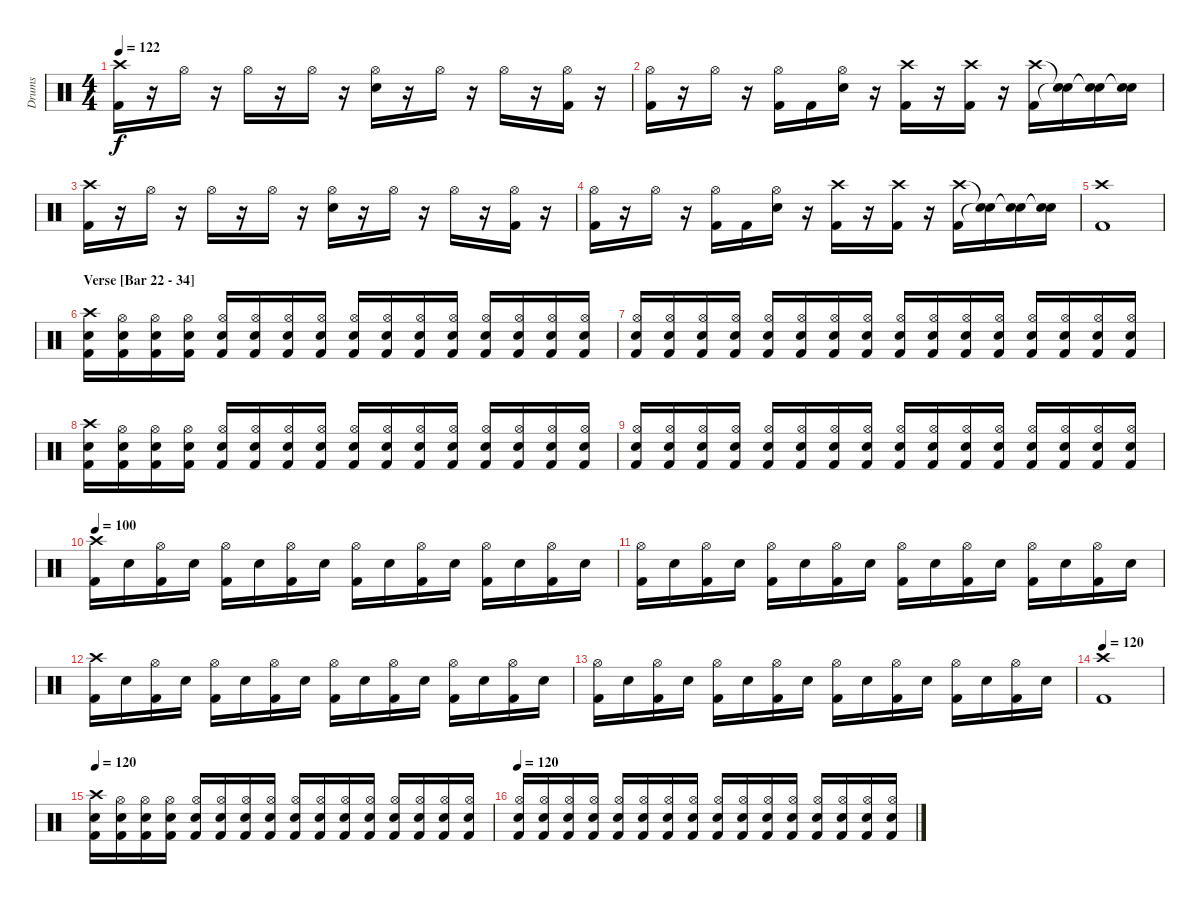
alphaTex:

\track ("Drums" "Drums") {instrument percussion}
\staff {score}
\articulation defaults
\ts (4 4)
\tempo 122
\clef neutral
\ks c
("Crash high (hit)" "Kick (hit) 2").16{dy f} r.16 "Hi-Hat (open)".16 r.16 "Hi-Hat (open)".16 r.16 "Hi-Hat (open)".16 r.16 ("Hi-Hat (open)" "Electric Snare (hit)").16 r.16 "Hi-Hat (open)".16 r.16 "Hi-Hat (open)".16 r.16 ("Hi-Hat (open)" "Kick (hit) 2").16 r.16 |
("Hi-Hat (open)" "Kick (hit) 2").16 r.16 "Hi-Hat (open)".16 r.16 ("Hi-Hat (open)" "Kick (hit) 2").16 "Kick (hit) 2".16 ("Hi-Hat (open)" "Electric Snare (hit)").16 r.16 ("Crash high (hit)" "Kick (hit) 2").16 r.16 ("Crash high (hit)" "Kick (hit) 2").16 r.16 ("Crash high (hit)" "Kick (hit) 2").16 ("Snare (hit)"{t} "Snare (hit)"{t}).16 ("Snare (hit)"{t} "Snare (hit)"{t}).16 ("Snare (hit)"{t} "Snare (hit)"{t}).16 |
("Crash high (hit)" "Kick (hit) 2").16 r.16 "Hi-Hat (open)".16 r.16 "Hi-Hat (open)".16 r.16 "Hi-Hat (open)".16 r.16 ("Hi-Hat (open)" "Electric Snare (hit)").16 r.16 "Hi-Hat (open)".16 r.16 "Hi-Hat (open)".16 r.16 ("Hi-Hat (open)" "Kick (hit) 2").16 r.16 |
("Hi-Hat (open)" "Kick (hit) 2").16 r.16 "Hi-Hat (open)".16 r.16 ("Hi-Hat (open)" "Kick (hit) 2").16 "Kick (hit) 2".16 ("Hi-Hat (open)" "Electric Snare (hit)").16 r.16 ("Crash high (hit)" "Kick (hit) 2").16 r.16 ("Crash high (hit)" "Kick (hit) 2").16 r.16 ("Crash high (hit)" "Kick (hit) 2").16 ("Snare (hit)"{t} "Snare (hit)"{t}).16 ("Snare (hit)"{t} "Snare (hit)"{t}).16 ("Snare (hit)"{t} "Snare (hit)"{t}).16 |
("Crash high (hit)" "Kick (hit) 2").1 |
\section ("" "Verse [Bar 22 - 34]")
("Crash high (hit)" "Electric Snare (hit)" "Kick (hit) 2").16 ("Hi-Hat (open)" "Electric Snare (hit)" "Kick (hit) 2").16 ("Hi-Hat (open)" "Electric Snare (hit)" "Kick (hit) 2").16 ("Hi-Hat (open)" "Electric Snare (hit)" "Kick (hit) 2").16 ("Hi-Hat (open)" "Electric Snare (hit)" "Kick (hit) 2").16 ("Hi-Hat (open)" "Electric Snare (hit)" "Kick (hit) 2").16 ("Hi-Hat (open)" "Electric Snare (hit)" "Kick (hit) 2").16 ("Hi-Hat (open)" "Electric Snare (hit)" "Kick (hit) 2").16 ("Hi-Hat (open)" "Electric Snare (hit)" "Kick (hit) 2").16 ("Hi-Hat (open)" "Electric Snare (hit)" "Kick (hit) 2").16 ("Hi-Hat (open)" "Electric Snare (hit)" "Kick (hit) 2").16 ("Hi-Hat (open)" "Electric Snare (hit)" "Kick (hit) 2").16 ("Hi-Hat (open)" "Electric Snare (hit)" "Kick (hit) 2").16 ("Hi-Hat (open)" "Electric Snare (hit)" "Kick (hit) 2").16 ("Hi-Hat (open)" "Electric Snare (hit)" "Kick (hit) 2").16 ("Hi-Hat (open)" "Electric Snare (hit)" "Kick (hit) 2").16 |
("Hi-Hat (open)" "Electric Snare (hit)" "Kick (hit) 2").16 ("Hi-Hat (open)" "Electric Snare (hit)" "Kick (hit) 2").16 ("Hi-Hat (open)" "Electric Snare (hit)" "Kick (hit) 2").16 ("Hi-Hat (open)" "Electric Snare (hit)" "Kick (hit) 2").16 ("Hi-Hat (open)" "Electric Snare (hit)" "Kick (hit) 2").16 ("Hi-Hat (open)" "Electric Snare (hit)" "Kick (hit) 2").16 ("Hi-Hat (open)" "Electric Snare (hit)" "Kick (hit) 2").16 ("Hi-Hat (open)" "Electric Snare (hit)" "Kick (hit) 2").16 ("Hi-Hat (open)" "Electric Snare (hit)" "Kick (hit) 2").16 ("Hi-Hat (open)" "Electric Snare (hit)" "Kick (hit) 2").16 ("Hi-Hat (open)" "Electric Snare (hit)" "Kick (hit) 2").16 ("Hi-Hat (open)" "Electric Snare (hit)" "Kick (hit) 2").16 ("Hi-Hat (open)" "Electric Snare (hit)" "Kick (hit) 2").16 ("Hi-Hat (open)" "Electric Snare (hit)" "Kick (hit) 2").16 ("Hi-Hat (open)" "Electric Snare (hit)" "Kick (hit) 2").16 ("Hi-Hat (open)" "Electric Snare (hit)" "Kick (hit) 2").16 |
("Crash high (hit)" "Electric Snare (hit)" "Kick (hit) 2").16 ("Hi-Hat (open)" "Electric Snare (hit)" "Kick (hit) 2").16 ("Hi-Hat (open)" "Electric Snare (hit)" "Kick (hit) 2").16 ("Hi-Hat (open)" "Electric Snare (hit)" "Kick (hit) 2").16 ("Hi-Hat (open)" "Electric Snare (hit)" "Kick (hit) 2").16 ("Hi-Hat (open)" "Electric Snare (hit)" "Kick (hit) 2").16 ("Hi-Hat (open)" "Electric Snare (hit)" "Kick (hit) 2").16 ("Hi-Hat (open)" "Electric Snare (hit)" "Kick (hit) 2").16 ("Hi-Hat (open)" "Electric Snare (hit)" "Kick (hit) 2").16 ("Hi-Hat (open)" "Electric Snare (hit)" "Kick (hit) 2").16 ("Hi-Hat (open)" "Electric Snare (hit)" "Kick (hit) 2").16 ("Hi-Hat (open)" "Electric Snare (hit)" "Kick (hit) 2").16 ("Hi-Hat (open)" "Electric Snare (hit)" "Kick (hit) 2").16 ("Hi-Hat (open)" "Electric Snare (hit)" "Kick (hit) 2").16 ("Hi-Hat (open)" "Electric Snare (hit)" "Kick (hit) 2").16 ("Hi-Hat (open)" "Electric Snare (hit)" "Kick (hit) 2").16 |
("Hi-Hat (open)" "Electric Snare (hit)" "Kick (hit) 2").16 ("Hi-Hat (open)" "Electric Snare (hit)" "Kick (hit) 2").16 ("Hi-Hat (open)" "Electric Snare (hit)" "Kick (hit) 2").16 ("Hi-Hat (open)" "Electric Snare (hit)" "Kick (hit) 2").16 ("Hi-Hat (open)" "Electric Snare (hit)" "Kick (hit) 2").16 ("Hi-Hat (open)" "Electric Snare (hit)" "Kick (hit) 2").16 ("Hi-Hat (open)" "Electric Snare (hit)" "Kick (hit) 2").16 ("Hi-Hat (open)" "Electric Snare (hit)" "Kick (hit) 2").16 ("Hi-Hat (open)" "Electric Snare (hit)" "Kick (hit) 2").16 ("Hi-Hat (open)" "Electric Snare (hit)" "Kick (hit) 2").16 ("Hi-Hat (open)" "Electric Snare (hit)" "Kick (hit) 2").16 ("Hi-Hat (open)" "Electric Snare (hit)" "Kick (hit) 2").16 ("Hi-Hat (open)" "Electric Snare (hit)" "Kick (hit) 2").16 ("Hi-Hat (open)" "Electric Snare (hit)" "Kick (hit) 2").16 ("Hi-Hat (open)" "Electric Snare (hit)" "Kick (hit) 2").16 ("Hi-Hat (open)" "Electric Snare (hit)" "Kick (hit) 2").16 |
\tempo 100
("Crash high (hit)" "Kick (hit) 2").16 "Electric Snare (hit)".16 ("Hi-Hat (open)" "Kick (hit) 2").16 "Electric Snare (hit)".16 ("Hi-Hat (open)" "Kick (hit) 2").16 "Electric Snare (hit)".16 ("Hi-Hat (open)" "Kick (hit) 2").16 "Electric Snare (hit)".16 ("Hi-Hat (open)" "Kick (hit) 2").16 "Electric Snare (hit)".16 ("Hi-Hat (open)" "Kick (hit) 2").16 "Electric Snare (hit)".16 ("Hi-Hat (open)" "Kick (hit) 2").16 "Electric Snare (hit)".16 ("Hi-Hat (open)" "Kick (hit) 2").16 "Electric Snare (hit)".16 |
("Hi-Hat (open)" "Kick (hit) 2").16 "Electric Snare (hit)".16 ("Hi-Hat (open)" "Kick (hit) 2").16 "Electric Snare (hit)".16 ("Hi-Hat (open)" "Kick (hit) 2").16 "Electric Snare (hit)".16 ("Hi-Hat (open)" "Kick (hit) 2").16 "Electric Snare (hit)".16 ("Hi-Hat (open)" "Kick (hit) 2").16 "Electric Snare (hit)".16 ("Hi-Hat (open)" "Kick (hit) 2").16 "Electric Snare (hit)".16 ("Hi-Hat (open)" "Kick (hit) 2").16 "Electric Snare (hit)".16 ("Hi-Hat (open)" "Kick (hit) 2").16 "Electric Snare (hit)".16 |
("Crash high (hit)" "Kick (hit) 2").16 "Electric Snare (hit)".16 ("Hi-Hat (open)" "Kick (hit) 2").16 "Electric Snare (hit)".16 ("Hi-Hat (open)" "Kick (hit) 2").16 "Electric Snare (hit)".16 ("Hi-Hat (open)" "Kick (hit) 2").16 "Electric Snare (hit)".16 ("Hi-Hat (open)" "Kick (hit) 2").16 "Electric Snare (hit)".16 ("Hi-Hat (open)" "Kick (hit) 2").16 "Electric Snare (hit)".16 ("Hi-Hat (open)" "Kick (hit) 2").16 "Electric Snare (hit)".16 ("Hi-Hat (open)" "Kick (hit) 2").16 "Electric Snare (hit)".16 |
("Hi-Hat (open)" "Kick (hit) 2").16 "Electric Snare (hit)".16 ("Hi-Hat (open)" "Kick (hit) 2").16 "Electric Snare (hit)".16 ("Hi-Hat (open)" "Kick (hit) 2").16 "Electric Snare (hit)".16 ("Hi-Hat (open)" "Kick (hit) 2").16 "Electric Snare (hit)".16 ("Hi-Hat (open)" "Kick (hit) 2").16 "Electric Snare (hit)".16 ("Hi-Hat (open)" "Kick (hit) 2").16 "Electric Snare (hit)".16 ("Hi-Hat (open)" "Kick (hit) 2").16 "Electric Snare (hit)".16 ("Hi-Hat (open)" "Kick (hit) 2").16 "Electric Snare (hit)".16 |
\tempo 120
("Crash high (hit)" "Kick (hit) 2").1 |
\tempo 120
("Crash high (hit)" "Electric Snare (hit)" "Kick (hit) 2").16 ("Hi-Hat (open)" "Electric Snare (hit)" "Kick (hit) 2").16 ("Hi-Hat (open)" "Electric Snare (hit)" "Kick (hit) 2").16 ("Hi-Hat (open)" "Electric Snare (hit)" "Kick (hit) 2").16 ("Hi-Hat (open)" "Electric Snare (hit)" "Kick (hit) 2").16 ("Hi-Hat (open)" "Electric Snare (hit)" "Kick (hit) 2").16 ("Hi-Hat (open)" "Electric Snare (hit)" "Kick (hit) 2").16 ("Hi-Hat (open)" "Electric Snare (hit)" "Kick (hit) 2").16 ("Hi-Hat (open)" "Electric Snare (hit)" "Kick (hit) 2").16 ("Hi-Hat (open)" "Electric Snare (hit)" "Kick (hit) 2").16 ("Hi-Hat (open)" "Electric Snare (hit)" "Kick (hit) 2").16 ("Hi-Hat (open)" "Electric Snare (hit)" "Kick (hit) 2").16 ("Hi-Hat (open)" "Electric Snare (hit)" "Kick (hit) 2").16 ("Hi-Hat (open)" "Electric Snare (hit)" "Kick (hit) 2").16 ("Hi-Hat (open)" "Electric Snare (hit)" "Kick (hit) 2").16 ("Hi-Hat (open)" "Electric Snare (hit)" "Kick (hit) 2").16 |
\tempo 120
("Hi-Hat (open)" "Electric Snare (hit)" "Kick (hit) 2").16 ("Hi-Hat (open)" "Electric Snare (hit)" "Kick (hit) 2").16 ("Hi-Hat (open)" "Electric Snare (hit)" "Kick (hit) 2").16 ("Hi-Hat (open)" "Electric Snare (hit)" "Kick (hit) 2").16 ("Hi-Hat (open)" "Electric Snare (hit)" "Kick (hit) 2").16 ("Hi-Hat (open)" "Electric Snare (hit)" "Kick (hit) 2").16 ("Hi-Hat (open)" "Electric Snare (hit)" "Kick (hit) 2").16 ("Hi-Hat (open)" "Electric Snare (hit)" "Kick (hit) 2").16 ("Hi-Hat (open)" "Electric Snare (hit)" "Kick (hit) 2").16 ("Hi-Hat (open)" "Electric Snare (hit)" "Kick (hit) 2").16 ("Hi-Hat (open)" "Electric Snare (hit)" "Kick (hit) 2").16 ("Hi-Hat (open)" "Electric Snare (hit)" "Kick (hit) 2").16 ("Hi-Hat (open)" "Electric Snare (hit)" "Kick (hit) 2").16 ("Hi-Hat (open)" "Electric Snare (hit)" "Kick (hit) 2").16 ("Hi-Hat (open)" "Electric Snare (hit)" "Kick (hit) 2").16 ("Hi-Hat (open)" "Electric Snare (hit)" "Kick (hit) 2").16
